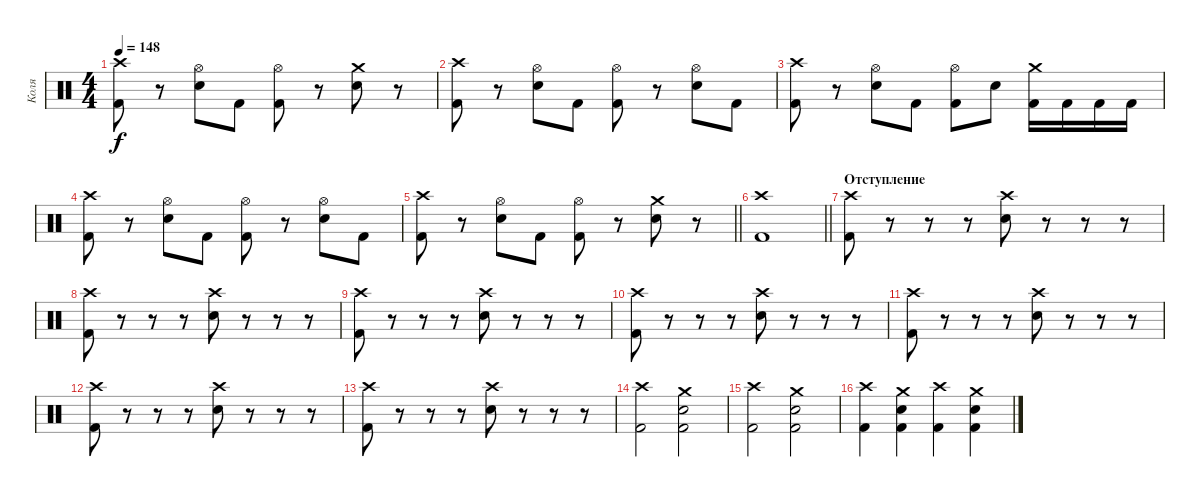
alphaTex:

\track ("Коля" "Коля") {instrument percussion}
\staff {score}
\articulation defaults
\ts (4 4)
\tempo 148
\clef neutral
\ks c
("Kick (hit) 2" "Crash high (hit)").8{dy f} r.8 ("Electric Snare (hit)" "Hi-Hat (open)").8 "Kick (hit) 2".8 ("Kick (hit) 2" "Hi-Hat (open)").8 r.8 ("Electric Snare (hit)" "Crash medium (hit)").8 r.8 |
("Kick (hit) 2" "Crash high (hit)").8 r.8 ("Electric Snare (hit)" "Hi-Hat (open)").8 "Kick (hit) 2".8 ("Kick (hit) 2" "Hi-Hat (open)").8 r.8 ("Electric Snare (hit)" "Hi-Hat (open)").8 "Kick (hit) 2".8 |
("Kick (hit) 2" "Crash high (hit)").8 r.8 ("Electric Snare (hit)" "Hi-Hat (open)").8 "Kick (hit) 2".8 ("Kick (hit) 2" "Hi-Hat (open)").8 "Electric Snare (hit)".8 ("Kick (hit) 2" "Crash medium (hit)").16 "Kick (hit) 2".16 "Kick (hit) 2".16 "Kick (hit) 2".16 |
("Kick (hit) 2" "Crash high (hit)").8 r.8 ("Electric Snare (hit)" "Hi-Hat (open)").8 "Kick (hit) 2".8 ("Kick (hit) 2" "Hi-Hat (open)").8 r.8 ("Electric Snare (hit)" "Hi-Hat (open)").8 "Kick (hit) 2".8 |
\barLineRight lightlight
("Kick (hit) 2" "Crash high (hit)").8 r.8 ("Electric Snare (hit)" "Hi-Hat (open)").8 "Kick (hit) 2".8 ("Kick (hit) 2" "Hi-Hat (open)").8 r.8 ("Electric Snare (hit)" "Crash medium (hit)").8 r.8 |
\barLineRight lightlight
("Kick (hit) 2" "Crash high (hit)").1 |
\section ("" "Отступление")
("Kick (hit) 2" "Crash high (hit)").8 r.8 r.8 r.8 ("Electric Snare (hit)" "Crash high (hit)").8 r.8 r.8 r.8 |
("Kick (hit) 2" "Crash high (hit)").8 r.8 r.8 r.8 ("Electric Snare (hit)" "Crash high (hit)").8 r.8 r.8 r.8 |
("Kick (hit) 2" "Crash high (hit)").8 r.8 r.8 r.8 ("Electric Snare (hit)" "Crash high (hit)").8 r.8 r.8 r.8 |
("Kick (hit) 2" "Crash high (hit)").8 r.8 r.8 r.8 ("Electric Snare (hit)" "Crash high (hit)").8 r.8 r.8 r.8 |
("Kick (hit) 2" "Crash high (hit)").8 r.8 r.8 r.8 ("Electric Snare (hit)" "Crash high (hit)").8 r.8 r.8 r.8 |
("Kick (hit) 2" "Crash high (hit)").8 r.8 r.8 r.8 ("Electric Snare (hit)" "Crash high (hit)").8 r.8 r.8 r.8 |
("Kick (hit) 2" "Crash high (hit)").8 r.8 r.8 r.8 ("Electric Snare (hit)" "Crash high (hit)").8 r.8 r.8 r.8 |
("Kick (hit) 2" "Crash high (hit)").2 ("Kick (hit) 2" "Electric Snare (hit)" "Crash medium (hit)").2 |
("Kick (hit) 2" "Crash high (hit)").2 ("Kick (hit) 2" "Electric Snare (hit)" "Crash medium (hit)").2 |
("Kick (hit) 2" "Crash high (hit)").4 ("Kick (hit) 2" "Electric Snare (hit)" "Crash medium (hit)").4 ("Kick (hit) 2" "Crash high (hit)").4 ("Kick (hit) 2" "Electric Snare (hit)" "Crash medium (hit)").4
